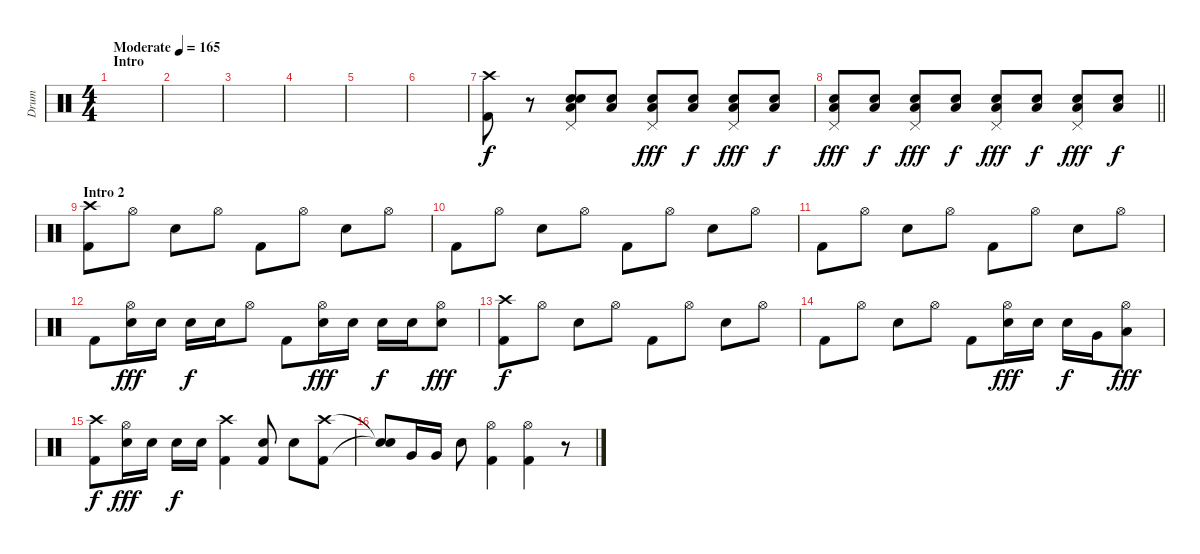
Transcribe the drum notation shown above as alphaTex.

\track ("Drum" "Drum") {instrument percussion}
\staff {score}
\articulation defaults
\ts (4 4)
\section ("" "Intro")
\tempo (165 "Moderate")
\clef neutral
\ks c
|
|
|
|
|
|
("Crash high (hit)" "Kick (hit) 2").8 r.8 ("Pedal Hi-Hat (hit)" "Electric Snare (hit)" "Low Tom (hit)" "Snare (hit)").8 ("Electric Snare (hit)" "Low Tom (hit)").8 ("Pedal Hi-Hat (hit)" "Electric Snare (hit)" "Low Tom (hit)").8{dy fff} ("Electric Snare (hit)" "Low Tom (hit)").8{dy f} ("Pedal Hi-Hat (hit)" "Electric Snare (hit)" "Low Tom (hit)").8{dy fff} ("Electric Snare (hit)" "Low Tom (hit)").8{dy f} |
\barLineRight lightlight
("Pedal Hi-Hat (hit)" "Electric Snare (hit)" "Low Tom (hit)").8{dy fff} ("Electric Snare (hit)" "Low Tom (hit)").8{dy f} ("Pedal Hi-Hat (hit)" "Electric Snare (hit)" "Low Tom (hit)").8{dy fff} ("Electric Snare (hit)" "Low Tom (hit)").8{dy f} ("Pedal Hi-Hat (hit)" "Electric Snare (hit)" "Low Tom (hit)").8{dy fff} ("Electric Snare (hit)" "Low Tom (hit)").8{dy f} ("Pedal Hi-Hat (hit)" "Electric Snare (hit)" "Low Tom (hit)").8{dy fff} ("Electric Snare (hit)" "Low Tom (hit)").8{dy f} |
\section ("" "Intro 2")
("Crash high (hit)" "Kick (hit) 2").8 "Hi-Hat (open)".8 "Electric Snare (hit)".8 "Hi-Hat (open)".8 "Kick (hit) 2".8 "Hi-Hat (open)".8 "Electric Snare (hit)".8 "Hi-Hat (open)".8 |
"Kick (hit) 2".8 "Hi-Hat (open)".8 "Electric Snare (hit)".8 "Hi-Hat (open)".8 "Kick (hit) 2".8 "Hi-Hat (open)".8 "Electric Snare (hit)".8 "Hi-Hat (open)".8 |
"Kick (hit) 2".8 "Hi-Hat (open)".8 "Electric Snare (hit)".8 "Hi-Hat (open)".8 "Kick (hit) 2".8 "Hi-Hat (open)".8 "Electric Snare (hit)".8 "Hi-Hat (open)".8 |
"Kick (hit) 2".8 ("Hi-Hat (open)" "Electric Snare (hit)").16{dy fff} "Electric Snare (hit)".16 "Electric Snare (hit)".16{dy f} "Electric Snare (hit)".16 "Hi-Hat (open)".8 "Kick (hit) 2".8 ("Hi-Hat (open)" "Electric Snare (hit)").16{dy fff} "Electric Snare (hit)".16 "Electric Snare (hit)".16{dy f} "Electric Snare (hit)".16 ("Hi-Hat (open)" "Electric Snare (hit)").8{dy fff} |
("Crash high (hit)" "Kick (hit) 2").8{dy f} "Hi-Hat (open)".8 "Electric Snare (hit)".8 "Hi-Hat (open)".8 "Kick (hit) 2".8 "Hi-Hat (open)".8 "Electric Snare (hit)".8 "Hi-Hat (open)".8 |
"Kick (hit) 2".8 "Hi-Hat (open)".8 "Electric Snare (hit)".8 "Hi-Hat (open)".8 "Kick (hit) 2".8 ("Hi-Hat (open)" "Electric Snare (hit)").16{dy fff} "Electric Snare (hit)".16 "Electric Snare (hit)".16{dy f} "Very Low Tom (hit)".16 ("Hi-Hat (open)" "Low Floor Tom (hit)").8{dy fff} |
("Crash high (hit)" "Kick (hit) 2").8{dy f} ("Hi-Hat (open)" "Electric Snare (hit)").16{dy fff} "Electric Snare (hit)".16 "Electric Snare (hit)".16{dy f} "Electric Snare (hit)".16 ("Crash high (hit)" "Kick (hit) 2").4 ("Electric Snare (hit)" "Kick (hit) 2").8 "Electric Snare (hit)".8 ("Crash high (hit)" "Kick (hit) 2").8 |
("Snare (hit)"{t} "Snare (hit)"{t}).8 "Very Low Tom (hit)".16 "Very Low Tom (hit)".16 "Electric Snare (hit)".8 ("Hi-Hat (open)" "Kick (hit) 2").4 ("Hi-Hat (open)" "Kick (hit) 2").4 r.8
